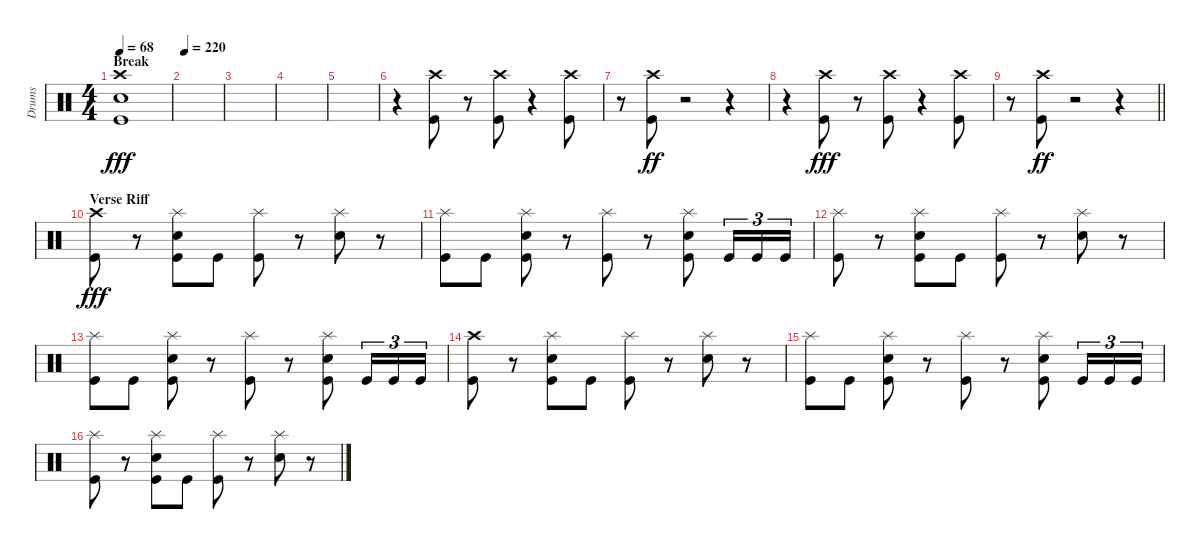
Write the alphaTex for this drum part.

\track ("Drums" "Drums") {instrument percussion}
\staff {score}
\articulation defaults
\ts (4 4)
\section ("" "Break")
\tempo 68
\clef neutral
\ks c
("Crash high (hit)" "Electric Snare (hit)" "Kick (hit)").1{dy fff} |
\tempo 220
|
|
|
|
r.4 ("Crash high (hit)" "Kick (hit)").8 r.8 ("Crash high (hit)" "Kick (hit)").8 r.4 ("Crash high (hit)" "Kick (hit)").8 |
r.8 ("Crash high (hit)" "Kick (hit)").8{dy ff} r.2 r.4 |
r.4 ("Crash high (hit)" "Kick (hit)").8{dy fff} r.8 ("Crash high (hit)" "Kick (hit)").8 r.4 ("Crash high (hit)" "Kick (hit)").8 |
\barLineRight lightlight
r.8 ("Crash high (hit)" "Kick (hit)").8{dy ff} r.2 r.4 |
\section ("" "Verse Riff")
("Crash high (hit)" "Kick (hit)").8{dy fff} r.8 ("Splash (hit)" "Electric Snare (hit)" "Kick (hit)").8 "Kick (hit)".8 ("Splash (hit)" "Kick (hit)").8 r.8 ("Splash (hit)" "Electric Snare (hit)").8 r.8 |
("Splash (hit)" "Kick (hit)").8 "Kick (hit)".8 ("Splash (hit)" "Electric Snare (hit)" "Kick (hit)").8 r.8 ("Splash (hit)" "Kick (hit)").8 r.8 ("Splash (hit)" "Electric Snare (hit)" "Kick (hit)").8 "Kick (hit)".16{tu (3 2)} "Kick (hit)".16{tu (3 2)} "Kick (hit)".16{tu (3 2)} |
("Splash (hit)" "Kick (hit)").8 r.8 ("Splash (hit)" "Electric Snare (hit)" "Kick (hit)").8 "Kick (hit)".8 ("Splash (hit)" "Kick (hit)").8 r.8 ("Splash (hit)" "Electric Snare (hit)").8 r.8 |
("Splash (hit)" "Kick (hit)").8 "Kick (hit)".8 ("Splash (hit)" "Electric Snare (hit)" "Kick (hit)").8 r.8 ("Splash (hit)" "Kick (hit)").8 r.8 ("Splash (hit)" "Electric Snare (hit)" "Kick (hit)").8 "Kick (hit)".16{tu (3 2)} "Kick (hit)".16{tu (3 2)} "Kick (hit)".16{tu (3 2)} |
("Crash high (hit)" "Kick (hit)").8 r.8 ("Splash (hit)" "Electric Snare (hit)" "Kick (hit)").8 "Kick (hit)".8 ("Splash (hit)" "Kick (hit)").8 r.8 ("Splash (hit)" "Electric Snare (hit)").8 r.8 |
("Splash (hit)" "Kick (hit)").8 "Kick (hit)".8 ("Splash (hit)" "Electric Snare (hit)" "Kick (hit)").8 r.8 ("Splash (hit)" "Kick (hit)").8 r.8 ("Splash (hit)" "Electric Snare (hit)" "Kick (hit)").8 "Kick (hit)".16{tu (3 2)} "Kick (hit)".16{tu (3 2)} "Kick (hit)".16{tu (3 2)} |
("Splash (hit)" "Kick (hit)").8 r.8 ("Splash (hit)" "Electric Snare (hit)" "Kick (hit)").8 "Kick (hit)".8 ("Splash (hit)" "Kick (hit)").8 r.8 ("Splash (hit)" "Electric Snare (hit)").8 r.8
